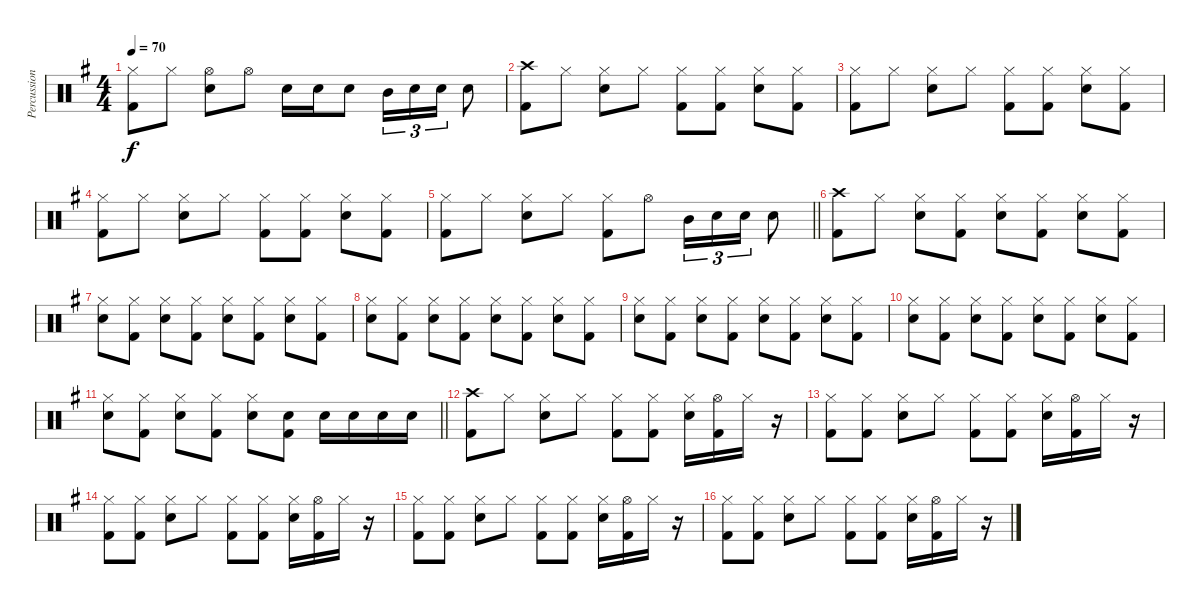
\track ("Percussion" "Percussion") {instrument percussion}
\staff {score}
\articulation defaults
\ts (4 4)
\tempo 70
\clef neutral
\ks g
("Hi-Hat (closed)" "Kick (hit) 2").8{dy f} "Hi-Hat (closed)".8 ("Hi-Hat (open)" "Snare (hit) 2").8 "Hi-Hat (open)".8 "Snare (hit) 2".16 "Snare (hit) 2".16 "Snare (hit) 2".8 "Mid Tom (hit)".16{tu (3 2)} "Snare (hit) 2".16{tu (3 2)} "Snare (hit) 2".16{tu (3 2)} "Snare (hit) 2".8 |
("Crash high (hit)" "Kick (hit) 2").8 "Hi-Hat (closed)".8 ("Hi-Hat (closed)" "Snare (hit) 2").8 "Hi-Hat (closed)".8 ("Hi-Hat (closed)" "Kick (hit) 2").8 ("Hi-Hat (closed)" "Kick (hit) 2").8 ("Hi-Hat (closed)" "Snare (hit) 2").8 ("Hi-Hat (closed)" "Kick (hit) 2").8 |
("Hi-Hat (closed)" "Kick (hit) 2").8 "Hi-Hat (closed)".8 ("Hi-Hat (closed)" "Snare (hit) 2").8 "Hi-Hat (closed)".8 ("Hi-Hat (closed)" "Kick (hit) 2").8 ("Hi-Hat (closed)" "Kick (hit) 2").8 ("Hi-Hat (closed)" "Snare (hit) 2").8 ("Hi-Hat (closed)" "Kick (hit) 2").8 |
("Hi-Hat (closed)" "Kick (hit) 2").8 "Hi-Hat (closed)".8 ("Hi-Hat (closed)" "Snare (hit) 2").8 "Hi-Hat (closed)".8 ("Hi-Hat (closed)" "Kick (hit) 2").8 ("Hi-Hat (closed)" "Kick (hit) 2").8 ("Hi-Hat (closed)" "Snare (hit) 2").8 ("Hi-Hat (closed)" "Kick (hit) 2").8 |
\barLineRight lightlight
("Hi-Hat (closed)" "Kick (hit) 2").8 "Hi-Hat (closed)".8 ("Hi-Hat (closed)" "Snare (hit) 2").8 "Hi-Hat (closed)".8 ("Hi-Hat (closed)" "Kick (hit) 2").8 "Hi-Hat (open)".8 "Mid Tom (hit)".16{tu (3 2)} "Snare (hit) 2".16{tu (3 2)} "Snare (hit) 2".16{tu (3 2)} "Snare (hit) 2".8 |
("Crash high (hit)" "Kick (hit) 2").8 "Hi-Hat (closed)".8 ("Hi-Hat (closed)" "Snare (hit) 2").8 ("Hi-Hat (closed)" "Kick (hit) 2").8 ("Hi-Hat (closed)" "Snare (hit) 2").8 ("Hi-Hat (closed)" "Kick (hit) 2").8 ("Hi-Hat (closed)" "Snare (hit) 2").8 ("Hi-Hat (closed)" "Kick (hit) 2").8 |
("Hi-Hat (closed)" "Snare (hit) 2").8 ("Hi-Hat (closed)" "Kick (hit) 2").8 ("Hi-Hat (closed)" "Snare (hit) 2").8 ("Hi-Hat (closed)" "Kick (hit) 2").8 ("Hi-Hat (closed)" "Snare (hit) 2").8 ("Hi-Hat (closed)" "Kick (hit) 2").8 ("Hi-Hat (closed)" "Snare (hit) 2").8 ("Hi-Hat (closed)" "Kick (hit) 2").8 |
("Hi-Hat (closed)" "Snare (hit) 2").8 ("Hi-Hat (closed)" "Kick (hit) 2").8 ("Hi-Hat (closed)" "Snare (hit) 2").8 ("Hi-Hat (closed)" "Kick (hit) 2").8 ("Hi-Hat (closed)" "Snare (hit) 2").8 ("Hi-Hat (closed)" "Kick (hit) 2").8 ("Hi-Hat (closed)" "Snare (hit) 2").8 ("Hi-Hat (closed)" "Kick (hit) 2").8 |
("Hi-Hat (closed)" "Snare (hit) 2").8 ("Hi-Hat (closed)" "Kick (hit) 2").8 ("Hi-Hat (closed)" "Snare (hit) 2").8 ("Hi-Hat (closed)" "Kick (hit) 2").8 ("Hi-Hat (closed)" "Snare (hit) 2").8 ("Hi-Hat (closed)" "Kick (hit) 2").8 ("Hi-Hat (closed)" "Snare (hit) 2").8 ("Hi-Hat (closed)" "Kick (hit) 2").8 |
("Hi-Hat (closed)" "Snare (hit) 2").8 ("Hi-Hat (closed)" "Kick (hit) 2").8 ("Hi-Hat (closed)" "Snare (hit) 2").8 ("Hi-Hat (closed)" "Kick (hit) 2").8 ("Hi-Hat (closed)" "Snare (hit) 2").8 ("Hi-Hat (closed)" "Kick (hit) 2").8 ("Hi-Hat (closed)" "Snare (hit) 2").8 ("Hi-Hat (closed)" "Kick (hit) 2").8 |
\barLineRight lightlight
("Hi-Hat (closed)" "Snare (hit) 2").8 ("Hi-Hat (closed)" "Kick (hit) 2").8 ("Hi-Hat (closed)" "Snare (hit) 2").8 ("Hi-Hat (closed)" "Kick (hit) 2").8 ("Snare (hit) 2" "Hi-Hat (closed)").8 ("Snare (hit) 2" "Kick (hit) 2").8 "Snare (hit) 2".16 "Snare (hit) 2".16 "Snare (hit) 2".16 "Snare (hit) 2".16 |
("Crash high (hit)" "Kick (hit) 2").8 "Hi-Hat (closed)".8 ("Hi-Hat (closed)" "Snare (hit) 2").8 "Hi-Hat (closed)".8 ("Hi-Hat (closed)" "Kick (hit) 2").8 ("Hi-Hat (closed)" "Kick (hit) 2").8 ("Hi-Hat (closed)" "Snare (hit) 2").16 ("Hi-Hat (open)" "Kick (hit) 2").16 "Hi-Hat (closed)".16 r.16 |
("Hi-Hat (closed)" "Kick (hit) 2").8 ("Hi-Hat (closed)" "Kick (hit) 2").8 ("Hi-Hat (closed)" "Snare (hit) 2").8 "Hi-Hat (closed)".8 ("Hi-Hat (closed)" "Kick (hit) 2").8 ("Hi-Hat (closed)" "Kick (hit) 2").8 ("Hi-Hat (closed)" "Snare (hit) 2").16 ("Hi-Hat (open)" "Kick (hit) 2").16 "Hi-Hat (closed)".16 r.16 |
("Hi-Hat (closed)" "Kick (hit) 2").8 ("Hi-Hat (closed)" "Kick (hit) 2").8 ("Hi-Hat (closed)" "Snare (hit) 2").8 "Hi-Hat (closed)".8 ("Hi-Hat (closed)" "Kick (hit) 2").8 ("Hi-Hat (closed)" "Kick (hit) 2").8 ("Hi-Hat (closed)" "Snare (hit) 2").16 ("Hi-Hat (open)" "Kick (hit) 2").16 "Hi-Hat (closed)".16 r.16 |
("Hi-Hat (closed)" "Kick (hit) 2").8 ("Hi-Hat (closed)" "Kick (hit) 2").8 ("Hi-Hat (closed)" "Snare (hit) 2").8 "Hi-Hat (closed)".8 ("Hi-Hat (closed)" "Kick (hit) 2").8 ("Hi-Hat (closed)" "Kick (hit) 2").8 ("Hi-Hat (closed)" "Snare (hit) 2").16 ("Hi-Hat (open)" "Kick (hit) 2").16 "Hi-Hat (closed)".16 r.16 |
("Hi-Hat (closed)" "Kick (hit) 2").8 ("Hi-Hat (closed)" "Kick (hit) 2").8 ("Hi-Hat (closed)" "Snare (hit) 2").8 "Hi-Hat (closed)".8 ("Hi-Hat (closed)" "Kick (hit) 2").8 ("Hi-Hat (closed)" "Kick (hit) 2").8 ("Hi-Hat (closed)" "Snare (hit) 2").16 ("Hi-Hat (open)" "Kick (hit) 2").16 "Hi-Hat (closed)".16 r.16
